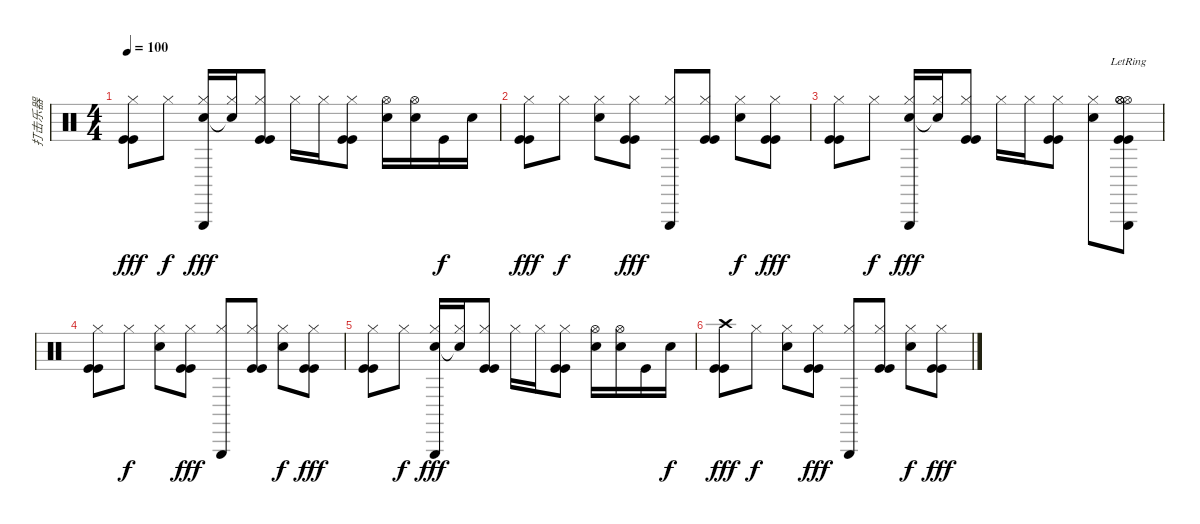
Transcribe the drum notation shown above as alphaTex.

\track ("打击乐器" "打击乐器") {instrument percussion}
\staff {score}
\articulation defaults
\ts (4 4)
\tempo 100
\clef neutral
\ks c
("Hi-Hat (closed)" "Kick (hit)" "Kick (hit)").8{dy fff} "Hi-Hat (closed)".8{dy f} ("Hi-Hat (closed)" "Electric Snare (hit)" "Triangle (hit)").16{dy fff} ("Hi-Hat (closed)" "Snare (hit)"{t}).16 ("Hi-Hat (closed)" "Kick (hit)" "Kick (hit)").8 "Hi-Hat (closed)".16 "Hi-Hat (closed)".16 ("Hi-Hat (closed)" "Kick (hit)" "Kick (hit)").8 ("Hi-Hat (open)" "Electric Snare (hit)").16 ("Hi-Hat (open)" "Electric Snare (hit)").16 "Kick (hit)".16{dy f} "Electric Snare (hit)".16 |
("Hi-Hat (closed)" "Kick (hit)" "Kick (hit)").8{dy fff} "Hi-Hat (closed)".8{dy f} ("Hi-Hat (closed)" "Electric Snare (hit)").8 ("Hi-Hat (closed)" "Kick (hit)" "Kick (hit)").8{dy fff} ("Hi-Hat (closed)" "Triangle (hit)").8 ("Hi-Hat (closed)" "Kick (hit)" "Kick (hit)").8 ("Hi-Hat (closed)" "Electric Snare (hit)").8{dy f} ("Hi-Hat (closed)" "Kick (hit)" "Kick (hit)").8{dy fff} |
("Hi-Hat (closed)" "Kick (hit)" "Kick (hit)").8 "Hi-Hat (closed)".8{dy f} ("Hi-Hat (closed)" "Electric Snare (hit)" "Triangle (hit)").16{dy fff} ("Hi-Hat (closed)" "Snare (hit)"{t}).16 ("Hi-Hat (closed)" "Kick (hit)" "Kick (hit)").8 "Hi-Hat (closed)".16 "Hi-Hat (closed)".16 ("Hi-Hat (closed)" "Kick (hit)" "Kick (hit)").8 ("Hi-Hat (closed)" "Electric Snare (hit)").8 ("Hi-Hat (open)" "Hi-Hat (open)" "Hi-Hat (open)" "Triangle (hit)"{lr} "Kick (hit)" "Kick (hit)").8 |
("Hi-Hat (closed)" "Kick (hit)" "Kick (hit)").8 "Hi-Hat (closed)".8{dy f} ("Hi-Hat (closed)" "Electric Snare (hit)").8 ("Hi-Hat (closed)" "Kick (hit)" "Kick (hit)").8{dy fff} ("Hi-Hat (closed)" "Triangle (hit)").8 ("Hi-Hat (closed)" "Kick (hit)" "Kick (hit)").8 ("Hi-Hat (closed)" "Electric Snare (hit)").8{dy f} ("Hi-Hat (closed)" "Kick (hit)" "Kick (hit)").8{dy fff} |
("Hi-Hat (closed)" "Kick (hit)" "Kick (hit)").8 "Hi-Hat (closed)".8{dy f} ("Hi-Hat (closed)" "Electric Snare (hit)" "Triangle (hit)").16{dy fff} ("Hi-Hat (closed)" "Snare (hit)"{t}).16 ("Hi-Hat (closed)" "Kick (hit)" "Kick (hit)").8 "Hi-Hat (closed)".16 "Hi-Hat (closed)".16 ("Hi-Hat (closed)" "Kick (hit)" "Kick (hit)").8 ("Hi-Hat (open)" "Electric Snare (hit)").16 ("Hi-Hat (open)" "Electric Snare (hit)").16 "Kick (hit)".16 "Electric Snare (hit)".16{dy f} |
("Crash high (hit)" "Kick (hit)" "Kick (hit)").8{dy fff} "Hi-Hat (closed)".8{dy f} ("Hi-Hat (closed)" "Electric Snare (hit)").8 ("Hi-Hat (closed)" "Kick (hit)" "Kick (hit)").8{dy fff} ("Hi-Hat (closed)" "Triangle (hit)").8 ("Hi-Hat (closed)" "Kick (hit)" "Kick (hit)").8 ("Hi-Hat (closed)" "Electric Snare (hit)").8{dy f} ("Hi-Hat (closed)" "Kick (hit)" "Kick (hit)").8{dy fff}
